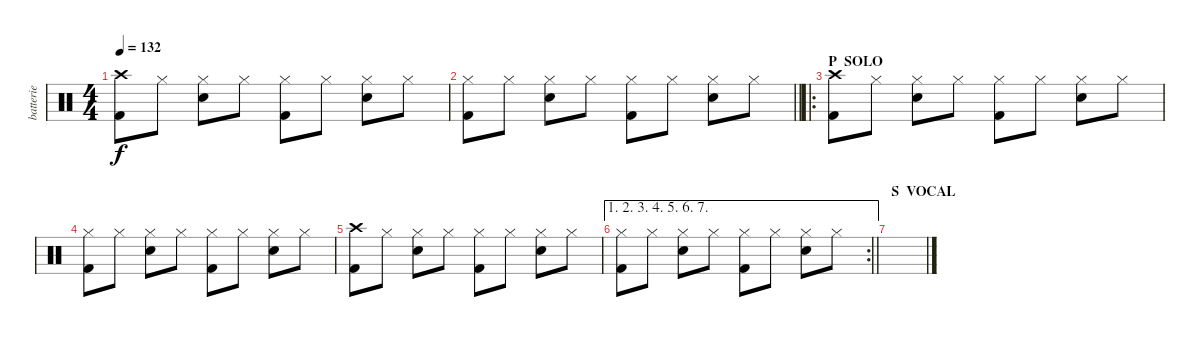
\track ("batterie" "batterie") {instrument percussion}
\staff {score}
\articulation defaults
\ts (4 4)
\tempo 132
\clef neutral
\ks c
("Crash high (hit)" "Kick (hit) 2").8{dy f} "Hi-Hat (closed)".8 ("Hi-Hat (closed)" "Electric Snare (hit)").8 "Hi-Hat (closed)".8 ("Hi-Hat (closed)" "Kick (hit) 2").8 "Hi-Hat (closed)".8 ("Hi-Hat (closed)" "Electric Snare (hit)").8 "Hi-Hat (closed)".8 |
\barLineRight lightlight
("Hi-Hat (closed)" "Kick (hit) 2").8 "Hi-Hat (closed)".8 ("Hi-Hat (closed)" "Electric Snare (hit)").8 "Hi-Hat (closed)".8 ("Hi-Hat (closed)" "Kick (hit) 2").8 "Hi-Hat (closed)".8 ("Hi-Hat (closed)" "Electric Snare (hit)").8 "Hi-Hat (closed)".8 |
\ro
\section ("" "P  SOLO")
("Crash high (hit)" "Kick (hit) 2").8 "Hi-Hat (closed)".8 ("Hi-Hat (closed)" "Electric Snare (hit)").8 "Hi-Hat (closed)".8 ("Hi-Hat (closed)" "Kick (hit) 2").8 "Hi-Hat (closed)".8 ("Hi-Hat (closed)" "Electric Snare (hit)").8 "Hi-Hat (closed)".8 |
("Hi-Hat (closed)" "Kick (hit) 2").8 "Hi-Hat (closed)".8 ("Hi-Hat (closed)" "Electric Snare (hit)").8 "Hi-Hat (closed)".8 ("Hi-Hat (closed)" "Kick (hit) 2").8 "Hi-Hat (closed)".8 ("Hi-Hat (closed)" "Electric Snare (hit)").8 "Hi-Hat (closed)".8 |
("Crash high (hit)" "Kick (hit) 2").8 "Hi-Hat (closed)".8 ("Hi-Hat (closed)" "Electric Snare (hit)").8 "Hi-Hat (closed)".8 ("Hi-Hat (closed)" "Kick (hit) 2").8 "Hi-Hat (closed)".8 ("Hi-Hat (closed)" "Electric Snare (hit)").8 "Hi-Hat (closed)".8 |
\ae (1 2 3 4 5 6 7)
\rc 2
\barLineRight lightlight
("Hi-Hat (closed)" "Kick (hit) 2").8 "Hi-Hat (closed)".8 ("Hi-Hat (closed)" "Electric Snare (hit)").8 "Hi-Hat (closed)".8 ("Hi-Hat (closed)" "Kick (hit) 2").8 "Hi-Hat (closed)".8 ("Hi-Hat (closed)" "Electric Snare (hit)").8 "Hi-Hat (closed)".8 |
\section ("" "S  VOCAL")
